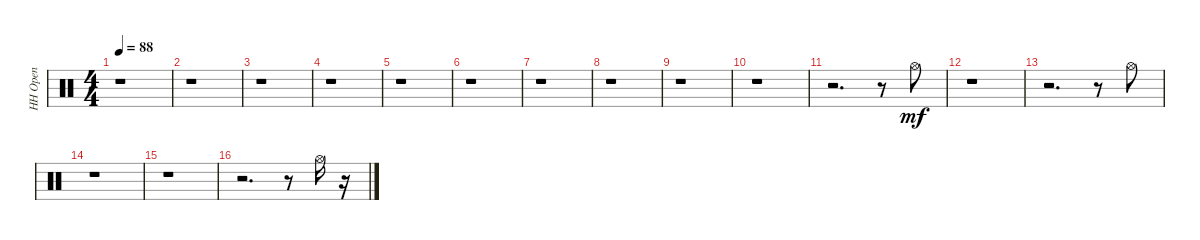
\track ("HH Open" "HH Open") {instrument percussion}
\staff {score}
\articulation defaults
\ts (4 4)
\tempo 88
\clef neutral
\ks c
r.1{dy mf} |
r.1 |
r.1 |
r.1 |
r.1 |
r.1 |
r.1 |
r.1 |
r.1 |
r.1 |
r.2{d} r.8 "Hi-Hat (open)".8 |
r.1 |
r.2{d} r.8 "Hi-Hat (open)".8 |
r.1 |
r.1 |
r.2{d} r.8 "Hi-Hat (open)".16 r.16
